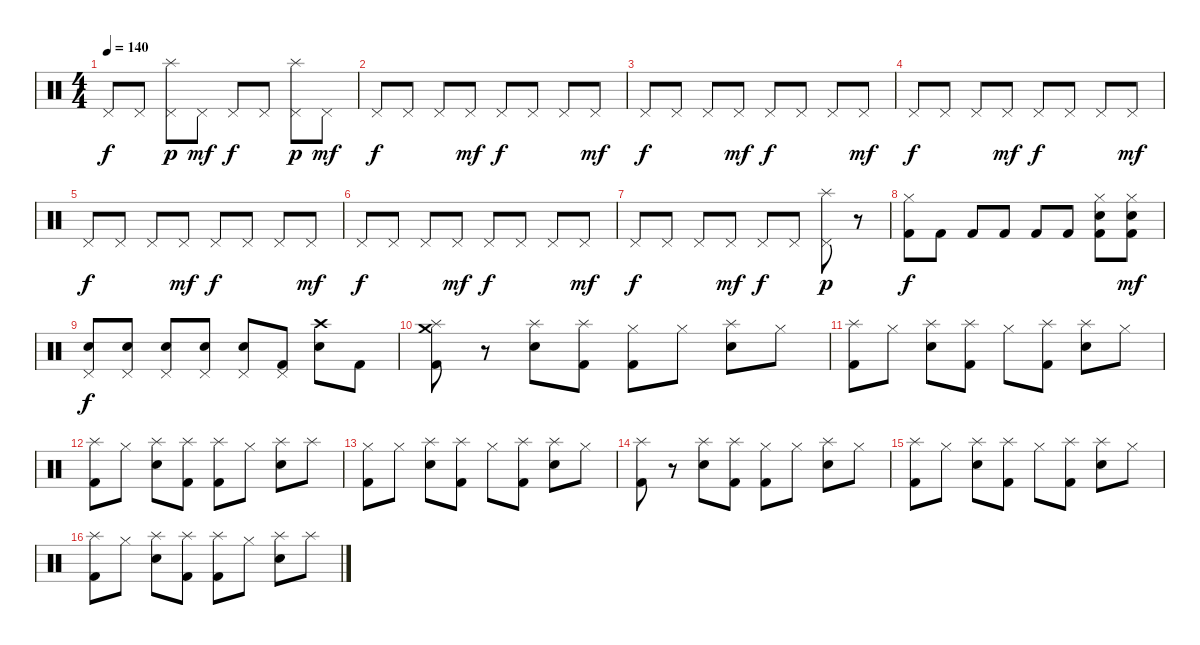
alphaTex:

\track "" {instrument percussion}
\staff {score}
\articulation defaults
\ts (4 4)
\tempo 140
\clef neutral
\ks c "Pedal Hi-Hat (hit)".8{dy f} "Pedal Hi-Hat (hit)".8
("Splash (hit)" "Pedal Hi-Hat (hit)").8{dy p} "Pedal Hi-Hat (hit)".8{dy mf} "Pedal Hi-Hat (hit)".8{dy f} "Pedal Hi-Hat (hit)".8 ("Splash (hit)" "Pedal Hi-Hat (hit)").8{dy p} "Pedal Hi-Hat (hit)".8{dy mf} |
"Pedal Hi-Hat (hit)".8{dy f} "Pedal Hi-Hat (hit)".8 "Pedal Hi-Hat (hit)".8 "Pedal Hi-Hat (hit)".8{dy mf} "Pedal Hi-Hat (hit)".8{dy f} "Pedal Hi-Hat (hit)".8 "Pedal Hi-Hat (hit)".8 "Pedal Hi-Hat (hit)".8{dy mf} |
"Pedal Hi-Hat (hit)".8{dy f} "Pedal Hi-Hat (hit)".8 "Pedal Hi-Hat (hit)".8 "Pedal Hi-Hat (hit)".8{dy mf} "Pedal Hi-Hat (hit)".8{dy f} "Pedal Hi-Hat (hit)".8 "Pedal Hi-Hat (hit)".8 "Pedal Hi-Hat (hit)".8{dy mf} |
"Pedal Hi-Hat (hit)".8{dy f} "Pedal Hi-Hat (hit)".8 "Pedal Hi-Hat (hit)".8 "Pedal Hi-Hat (hit)".8{dy mf} "Pedal Hi-Hat (hit)".8{dy f} "Pedal Hi-Hat (hit)".8 "Pedal Hi-Hat (hit)".8 "Pedal Hi-Hat (hit)".8{dy mf} |
"Pedal Hi-Hat (hit)".8{dy f} "Pedal Hi-Hat (hit)".8 "Pedal Hi-Hat (hit)".8 "Pedal Hi-Hat (hit)".8{dy mf} "Pedal Hi-Hat (hit)".8{dy f} "Pedal Hi-Hat (hit)".8 "Pedal Hi-Hat (hit)".8 "Pedal Hi-Hat (hit)".8{dy mf} |
"Pedal Hi-Hat (hit)".8{dy f} "Pedal Hi-Hat (hit)".8 "Pedal Hi-Hat (hit)".8 "Pedal Hi-Hat (hit)".8{dy mf} "Pedal Hi-Hat (hit)".8{dy f} "Pedal Hi-Hat (hit)".8 "Pedal Hi-Hat (hit)".8 "Pedal Hi-Hat (hit)".8{dy mf} |
"Pedal Hi-Hat (hit)".8{dy f} "Pedal Hi-Hat (hit)".8 "Pedal Hi-Hat (hit)".8 "Pedal Hi-Hat (hit)".8{dy mf} "Pedal Hi-Hat (hit)".8{dy f} "Pedal Hi-Hat (hit)".8 ("Splash (hit)" "Pedal Hi-Hat (hit)").8{dy p} r.8 |
("Hi-Hat (closed)" "Kick (hit) 2").8{dy f volume 16} "Kick (hit) 2".8 "Kick (hit) 2".8 "Kick (hit) 2".8 "Kick (hit) 2".8 "Kick (hit) 2".8 ("Hi-Hat (closed)" "Electric Snare (hit)" "Kick (hit) 2").8 ("Hi-Hat (closed)" "Electric Snare (hit)" "Kick (hit) 2").8{dy mf} |
("Pedal Hi-Hat (hit)" "Electric Snare (hit)").8{dy f} ("Pedal Hi-Hat (hit)" "Electric Snare (hit)").8 ("Pedal Hi-Hat (hit)" "Electric Snare (hit)").8 ("Pedal Hi-Hat (hit)" "Electric Snare (hit)").8 ("Pedal Hi-Hat (hit)" "Electric Snare (hit)").8 ("Pedal Hi-Hat (hit)" "Kick (hit) 2").8 ("Crash high (hit)" "Electric Snare (hit)").8 "Kick (hit) 2".8 |
("Splash (hit)" "Crash medium (hit)" "Kick (hit) 2").8 r.8 ("Splash (hit)" "Electric Snare (hit)").8 ("Splash (hit)" "Kick (hit) 2").8 ("Hi-Hat (closed)" "Kick (hit) 2").8 "Hi-Hat (closed)".8 ("Splash (hit)" "Electric Snare (hit)").8 "Hi-Hat (closed)".8 |
("Splash (hit)" "Kick (hit) 2").8 "Hi-Hat (closed)".8 ("Splash (hit)" "Electric Snare (hit)").8 ("Splash (hit)" "Kick (hit) 2").8 "Hi-Hat (closed)".8 ("Splash (hit)" "Kick (hit) 2").8 ("Splash (hit)" "Electric Snare (hit)").8 "Hi-Hat (closed)".8 |
("Splash (hit)" "Kick (hit) 2").8 "Hi-Hat (closed)".8 ("Splash (hit)" "Electric Snare (hit)").8 ("Splash (hit)" "Kick (hit) 2").8 ("Splash (hit)" "Kick (hit) 2").8 "Hi-Hat (closed)".8 ("Splash (hit)" "Electric Snare (hit)").8 "Splash (hit)".8 |
("Hi-Hat (closed)" "Kick (hit) 2").8 "Hi-Hat (closed)".8 ("Splash (hit)" "Electric Snare (hit)").8 ("Splash (hit)" "Kick (hit) 2").8 "Hi-Hat (closed)".8 ("Splash (hit)" "Kick (hit) 2").8 ("Splash (hit)" "Electric Snare (hit)").8 "Hi-Hat (closed)".8 |
("Splash (hit)" "Kick (hit) 2").8 r.8 ("Splash (hit)" "Electric Snare (hit)").8 ("Splash (hit)" "Kick (hit) 2").8 ("Hi-Hat (closed)" "Kick (hit) 2").8 "Hi-Hat (closed)".8 ("Splash (hit)" "Electric Snare (hit)").8 "Hi-Hat (closed)".8 |
("Splash (hit)" "Kick (hit) 2").8 "Hi-Hat (closed)".8 ("Splash (hit)" "Electric Snare (hit)").8 ("Splash (hit)" "Kick (hit) 2").8 "Hi-Hat (closed)".8 ("Splash (hit)" "Kick (hit) 2").8 ("Splash (hit)" "Electric Snare (hit)").8 "Hi-Hat (closed)".8 |
("Splash (hit)" "Kick (hit) 2").8 "Hi-Hat (closed)".8 ("Splash (hit)" "Electric Snare (hit)").8 ("Splash (hit)" "Kick (hit) 2").8 ("Splash (hit)" "Kick (hit) 2").8 "Hi-Hat (closed)".8 ("Splash (hit)" "Electric Snare (hit)").8 "Splash (hit)".8
